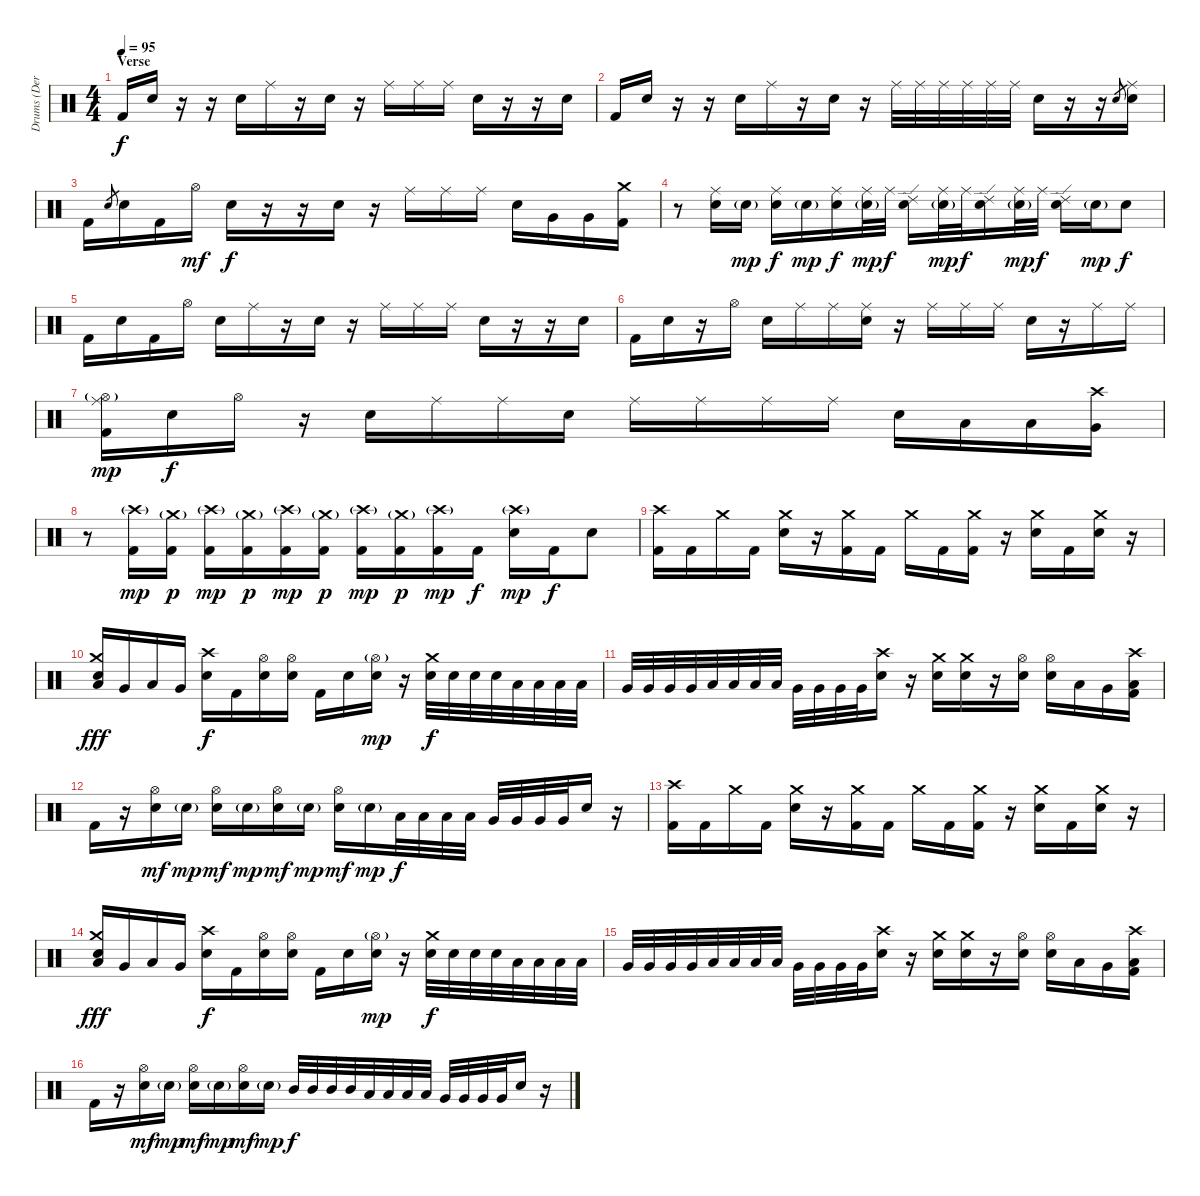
\track ("Drums (Derek Bloom)" "Drums (Der") {instrument percussion}
\staff {score}
\articulation defaults
\ts (4 4)
\section ("" "Verse")
\tempo 95
\clef neutral
\ks c "Kick (hit) 2".16{dy f} "Electric Snare (hit)".16
r.16 r.16 "Electric Snare (hit)".16 "Ride (middle)".16 r.16 "Electric Snare (hit)".16 r.16 "Ride (middle)".16 "Ride (middle)".16 "Ride (middle)".16 "Electric Snare (hit)".16 r.16 r.16 "Electric Snare (hit)".16 |
"Kick (hit) 2".16 "Electric Snare (hit)".16 r.16 r.16 "Electric Snare (hit)".16 "Ride (middle)".16 r.16 "Electric Snare (hit)".16 r.16 "Ride (middle)".32 "Ride (middle)".32 "Ride (middle)".32 "Ride (middle)".32 "Ride (middle)".32 "Ride (middle)".32 "Electric Snare (hit)".16 r.16 r.16 "Electric Snare (hit)".8{gr} ("Ride (middle)" "Electric Snare (hit)").16 |
"Kick (hit) 2".16 "Electric Snare (hit)".8{gr} "Electric Snare (hit)".16 "Kick (hit) 2".16 "Hi-Hat (open)".16{dy mf} "Electric Snare (hit)".16{dy f} r.16 r.16 "Electric Snare (hit)".16 r.16 "Ride (middle)".16 "Ride (middle)".16 "Ride (middle)".16 "Electric Snare (hit)".16 "Very Low Tom (hit)".16 "Very Low Tom (hit)".16 ("Crash medium (hit)" "Kick (hit) 2").16 |
r.8 ("Ride (middle)" "Electric Snare (hit)").16 "Electric Snare (hit)"{g}.16{dy mp} ("Ride (middle)" "Electric Snare (hit)").16{dy f} "Electric Snare (hit)"{g}.16{dy mp} ("Ride (middle)" "Electric Snare (hit)").16{dy f} ("Ride (middle)" "Electric Snare (hit)"{g}).32{dy mp} "Ride (middle)".32{dy f} ("Ride (edge) 2" "Electric Snare (hit)").16 ("Ride (middle)" "Electric Snare (hit)"{g}).32{dy mp} "Ride (middle)".32{dy f} ("Ride (edge) 2" "Electric Snare (hit)").16 ("Ride (middle)" "Electric Snare (hit)"{g}).32{dy mp} "Ride (middle)".32{dy f} ("Ride (edge) 2" "Electric Snare (hit)").16 "Electric Snare (hit)"{g}.16{dy mp} "Electric Snare (hit)".8{dy f} |
"Kick (hit) 2".16 "Electric Snare (hit)".16 "Kick (hit) 2".16 "Hi-Hat (open)".16 "Electric Snare (hit)".16 "Ride (middle)".16 r.16 "Electric Snare (hit)".16 r.16 "Ride (middle)".16 "Ride (middle)".16 "Ride (middle)".16 "Electric Snare (hit)".16 r.16 r.16 "Electric Snare (hit)".16 |
"Kick (hit) 2".16 "Electric Snare (hit)".16 r.16 "Hi-Hat (open)".16 "Electric Snare (hit)".16 "Ride (middle)".16 "Ride (middle)".16 ("Ride (middle)" "Electric Snare (hit)").16 r.16 "Ride (middle)".16 "Ride (middle)".16 "Ride (middle)".16 "Electric Snare (hit)".16 r.16 "Ride (middle)".16 "Ride (middle)".16 |
("Ride (middle)" "Hi-Hat (open)"{g} "Kick (hit) 2").16{dy mp} "Electric Snare (hit)".16{dy f} "Hi-Hat (open)".16 r.16 "Electric Snare (hit)".16 "Ride (middle)".16 "Ride (middle)".16 "Electric Snare (hit)".16 "Ride (middle)".16 "Ride (middle)".16 "Ride (middle)".16 "Ride (middle)".16 "Electric Snare (hit)".16 "Low Floor Tom (hit)".16 "Low Tom (hit)".16 ("Crash high (hit)" "Very Low Tom (hit)").16 |
r.8 ("Crash high (hit)"{g} "Kick (hit) 2").16{dy mp} ("Crash medium (hit)"{g} "Kick (hit) 2").16{dy p} ("Crash high (hit)"{g} "Kick (hit) 2").16{dy mp} ("Crash medium (hit)"{g} "Kick (hit) 2").16{dy p} ("Crash high (hit)"{g} "Kick (hit) 2").16{dy mp} ("Crash medium (hit)"{g} "Kick (hit) 2").16{dy p} ("Crash high (hit)"{g} "Kick (hit) 2").16{dy mp} ("Crash medium (hit)"{g} "Kick (hit) 2").16{dy p} ("Crash high (hit)"{g} "Kick (hit) 2").16{dy mp} "Kick (hit) 2".16{dy f} ("Crash high (hit)"{g} "Electric Snare (hit)").16{dy mp} "Kick (hit) 2".16{dy f} "Electric Snare (hit)".8 |
("Crash high (hit)" "Kick (hit) 2").16 "Kick (hit) 2".16 "Crash medium (hit)".16 "Kick (hit) 2".16 ("Crash medium (hit)" "Electric Snare (hit)").16 r.16 ("Crash medium (hit)" "Kick (hit) 2").16 "Kick (hit) 2".16 "Crash medium (hit)".16 "Kick (hit) 2".16 ("Crash medium (hit)" "Kick (hit) 2").16 r.16 ("Crash medium (hit)" "Electric Snare (hit)").16 "Kick (hit) 2".16 ("Crash medium (hit)" "Electric Snare (hit)").16 r.16 |
("Crash medium (hit)" "Electric Snare (hit)" "Low Tom (hit)").16{dy fff} "Very Low Tom (hit)".16 "Low Tom (hit)".16 "Very Low Tom (hit)".16 ("Crash high (hit)" "Electric Snare (hit)").16{dy f} "Kick (hit) 2".16 ("Hi-Hat (open)" "Electric Snare (hit)").16 ("Hi-Hat (open)" "Electric Snare (hit)").16 "Kick (hit) 2".16 "Electric Snare (hit)".16 ("Hi-Hat (open)"{g} "Electric Snare (hit)").16{dy mp} r.16 ("Crash medium (hit)" "Electric Snare (hit)").32{dy f} "Electric Snare (hit)".32 "Electric Snare (hit)".32 "Electric Snare (hit)".32 "Low Tom (hit)".32 "Low Tom (hit)".32 "Low Tom (hit)".32 "Low Tom (hit)".32 |
"Very Low Tom (hit)".32 "Very Low Tom (hit)".32 "Very Low Tom (hit)".32 "Very Low Tom (hit)".32 "Low Tom (hit)".32 "Low Tom (hit)".32 "Low Tom (hit)".32 "Low Tom (hit)".32 "Very Low Tom (hit)".32 "Very Low Tom (hit)".32 "Very Low Tom (hit)".32 "Very Low Tom (hit)".32 ("Crash high (hit)" "Electric Snare (hit)").16 r.16 ("Crash medium (hit)" "Electric Snare (hit)").16 ("Crash medium (hit)" "Electric Snare (hit)").16 r.16 ("Hi-Hat (open)" "Electric Snare (hit)").16 ("Hi-Hat (open)" "Electric Snare (hit)").16 "Low Tom (hit)".16 "Very Low Tom (hit)".16 ("Crash high (hit)" "Low Floor Tom (hit)" "Kick (hit) 2").16 |
"Kick (hit) 2".16 r.16 ("Hi-Hat (open)" "Electric Snare (hit)").16{dy mf} "Electric Snare (hit)"{g}.16{dy mp} ("Hi-Hat (open)" "Electric Snare (hit)").16{dy mf} "Electric Snare (hit)"{g}.16{dy mp} ("Hi-Hat (open)" "Electric Snare (hit)").16{dy mf} "Electric Snare (hit)"{g}.16{dy mp} ("Hi-Hat (open)" "Electric Snare (hit)").16{dy mf} "Electric Snare (hit)"{g}.16{dy mp} "Low Tom (hit)".32{dy f} "Low Tom (hit)".32 "Low Tom (hit)".32 "Low Tom (hit)".32 "Very Low Tom (hit)".32 "Very Low Tom (hit)".32 "Very Low Tom (hit)".32 "Very Low Tom (hit)".32 "Electric Snare (hit)".16 r.16 |
("Crash high (hit)" "Kick (hit) 2").16 "Kick (hit) 2".16 "Crash medium (hit)".16 "Kick (hit) 2".16 ("Crash medium (hit)" "Electric Snare (hit)").16 r.16 ("Crash medium (hit)" "Kick (hit) 2").16 "Kick (hit) 2".16 "Crash medium (hit)".16 "Kick (hit) 2".16 ("Crash medium (hit)" "Kick (hit) 2").16 r.16 ("Crash medium (hit)" "Electric Snare (hit)").16 "Kick (hit) 2".16 ("Crash medium (hit)" "Electric Snare (hit)").16 r.16 |
("Crash medium (hit)" "Electric Snare (hit)" "Low Tom (hit)").16{dy fff} "Very Low Tom (hit)".16 "Low Tom (hit)".16 "Very Low Tom (hit)".16 ("Crash high (hit)" "Electric Snare (hit)").16{dy f} "Kick (hit) 2".16 ("Hi-Hat (open)" "Electric Snare (hit)").16 ("Hi-Hat (open)" "Electric Snare (hit)").16 "Kick (hit) 2".16 "Electric Snare (hit)".16 ("Hi-Hat (open)"{g} "Electric Snare (hit)").16{dy mp} r.16 ("Crash medium (hit)" "Electric Snare (hit)").32{dy f} "Electric Snare (hit)".32 "Electric Snare (hit)".32 "Electric Snare (hit)".32 "Low Tom (hit)".32 "Low Tom (hit)".32 "Low Tom (hit)".32 "Low Tom (hit)".32 |
"Very Low Tom (hit)".32 "Very Low Tom (hit)".32 "Very Low Tom (hit)".32 "Very Low Tom (hit)".32 "Low Tom (hit)".32 "Low Tom (hit)".32 "Low Tom (hit)".32 "Low Tom (hit)".32 "Very Low Tom (hit)".32 "Very Low Tom (hit)".32 "Very Low Tom (hit)".32 "Very Low Tom (hit)".32 ("Crash high (hit)" "Electric Snare (hit)").16 r.16 ("Crash medium (hit)" "Electric Snare (hit)").16 ("Crash medium (hit)" "Electric Snare (hit)").16 r.16 ("Hi-Hat (open)" "Electric Snare (hit)").16 ("Hi-Hat (open)" "Electric Snare (hit)").16 "Low Tom (hit)".16 "Very Low Tom (hit)".16 ("Crash high (hit)" "Low Floor Tom (hit)" "Kick (hit) 2").16 |
"Kick (hit) 2".16 r.16 ("Hi-Hat (open)" "Electric Snare (hit)").16{dy mf} "Electric Snare (hit)"{g}.16{dy mp} ("Hi-Hat (open)" "Electric Snare (hit)").16{dy mf} "Electric Snare (hit)"{g}.16{dy mp} ("Hi-Hat (open)" "Electric Snare (hit)").16{dy mf} "Electric Snare (hit)"{g}.16{dy mp} "Mid Tom (hit)".32{dy f} "Mid Tom (hit)".32 "Mid Tom (hit)".32 "Mid Tom (hit)".32 "Low Tom (hit)".32 "Low Tom (hit)".32 "Low Tom (hit)".32 "Low Tom (hit)".32 "Very Low Tom (hit)".32 "Very Low Tom (hit)".32 "Very Low Tom (hit)".32 "Very Low Tom (hit)".32 "Electric Snare (hit)".16 r.16
